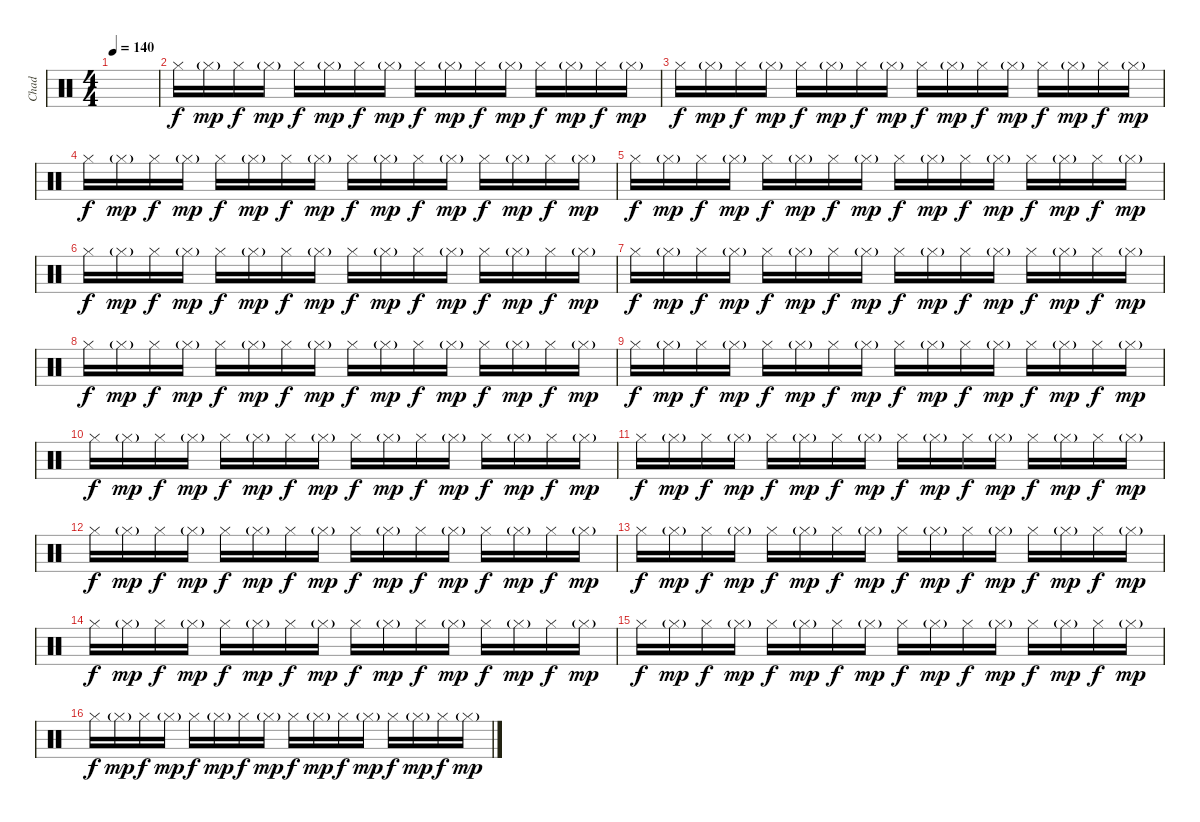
\track ("Chad" "Chad") {instrument percussion}
\staff {score}
\articulation defaults
\ts (4 4)
\tempo 140
\clef neutral
\ks c
|
"Hi-Hat (closed)".16 "Hi-Hat (closed)"{g}.16{dy mp} "Hi-Hat (closed)".16{dy f} "Hi-Hat (closed)"{g}.16{dy mp} "Hi-Hat (closed)".16{dy f} "Hi-Hat (closed)"{g}.16{dy mp} "Hi-Hat (closed)".16{dy f} "Hi-Hat (closed)"{g}.16{dy mp} "Hi-Hat (closed)".16{dy f} "Hi-Hat (closed)"{g}.16{dy mp} "Hi-Hat (closed)".16{dy f} "Hi-Hat (closed)"{g}.16{dy mp} "Hi-Hat (closed)".16{dy f} "Hi-Hat (closed)"{g}.16{dy mp} "Hi-Hat (closed)".16{dy f} "Hi-Hat (closed)"{g}.16{dy mp} |
"Hi-Hat (closed)".16{dy f} "Hi-Hat (closed)"{g}.16{dy mp} "Hi-Hat (closed)".16{dy f} "Hi-Hat (closed)"{g}.16{dy mp} "Hi-Hat (closed)".16{dy f} "Hi-Hat (closed)"{g}.16{dy mp} "Hi-Hat (closed)".16{dy f} "Hi-Hat (closed)"{g}.16{dy mp} "Hi-Hat (closed)".16{dy f} "Hi-Hat (closed)"{g}.16{dy mp} "Hi-Hat (closed)".16{dy f} "Hi-Hat (closed)"{g}.16{dy mp} "Hi-Hat (closed)".16{dy f} "Hi-Hat (closed)"{g}.16{dy mp} "Hi-Hat (closed)".16{dy f} "Hi-Hat (closed)"{g}.16{dy mp} |
"Hi-Hat (closed)".16{dy f} "Hi-Hat (closed)"{g}.16{dy mp} "Hi-Hat (closed)".16{dy f} "Hi-Hat (closed)"{g}.16{dy mp} "Hi-Hat (closed)".16{dy f} "Hi-Hat (closed)"{g}.16{dy mp} "Hi-Hat (closed)".16{dy f} "Hi-Hat (closed)"{g}.16{dy mp} "Hi-Hat (closed)".16{dy f} "Hi-Hat (closed)"{g}.16{dy mp} "Hi-Hat (closed)".16{dy f} "Hi-Hat (closed)"{g}.16{dy mp} "Hi-Hat (closed)".16{dy f} "Hi-Hat (closed)"{g}.16{dy mp} "Hi-Hat (closed)".16{dy f} "Hi-Hat (closed)"{g}.16{dy mp} |
"Hi-Hat (closed)".16{dy f} "Hi-Hat (closed)"{g}.16{dy mp} "Hi-Hat (closed)".16{dy f} "Hi-Hat (closed)"{g}.16{dy mp} "Hi-Hat (closed)".16{dy f} "Hi-Hat (closed)"{g}.16{dy mp} "Hi-Hat (closed)".16{dy f} "Hi-Hat (closed)"{g}.16{dy mp} "Hi-Hat (closed)".16{dy f} "Hi-Hat (closed)"{g}.16{dy mp} "Hi-Hat (closed)".16{dy f} "Hi-Hat (closed)"{g}.16{dy mp} "Hi-Hat (closed)".16{dy f} "Hi-Hat (closed)"{g}.16{dy mp} "Hi-Hat (closed)".16{dy f} "Hi-Hat (closed)"{g}.16{dy mp} |
"Hi-Hat (closed)".16{dy f} "Hi-Hat (closed)"{g}.16{dy mp} "Hi-Hat (closed)".16{dy f} "Hi-Hat (closed)"{g}.16{dy mp} "Hi-Hat (closed)".16{dy f} "Hi-Hat (closed)"{g}.16{dy mp} "Hi-Hat (closed)".16{dy f} "Hi-Hat (closed)"{g}.16{dy mp} "Hi-Hat (closed)".16{dy f} "Hi-Hat (closed)"{g}.16{dy mp} "Hi-Hat (closed)".16{dy f} "Hi-Hat (closed)"{g}.16{dy mp} "Hi-Hat (closed)".16{dy f} "Hi-Hat (closed)"{g}.16{dy mp} "Hi-Hat (closed)".16{dy f} "Hi-Hat (closed)"{g}.16{dy mp} |
"Hi-Hat (closed)".16{dy f} "Hi-Hat (closed)"{g}.16{dy mp} "Hi-Hat (closed)".16{dy f} "Hi-Hat (closed)"{g}.16{dy mp} "Hi-Hat (closed)".16{dy f} "Hi-Hat (closed)"{g}.16{dy mp} "Hi-Hat (closed)".16{dy f} "Hi-Hat (closed)"{g}.16{dy mp} "Hi-Hat (closed)".16{dy f} "Hi-Hat (closed)"{g}.16{dy mp} "Hi-Hat (closed)".16{dy f} "Hi-Hat (closed)"{g}.16{dy mp} "Hi-Hat (closed)".16{dy f} "Hi-Hat (closed)"{g}.16{dy mp} "Hi-Hat (closed)".16{dy f} "Hi-Hat (closed)"{g}.16{dy mp} |
"Hi-Hat (closed)".16{dy f} "Hi-Hat (closed)"{g}.16{dy mp} "Hi-Hat (closed)".16{dy f} "Hi-Hat (closed)"{g}.16{dy mp} "Hi-Hat (closed)".16{dy f} "Hi-Hat (closed)"{g}.16{dy mp} "Hi-Hat (closed)".16{dy f} "Hi-Hat (closed)"{g}.16{dy mp} "Hi-Hat (closed)".16{dy f} "Hi-Hat (closed)"{g}.16{dy mp} "Hi-Hat (closed)".16{dy f} "Hi-Hat (closed)"{g}.16{dy mp} "Hi-Hat (closed)".16{dy f} "Hi-Hat (closed)"{g}.16{dy mp} "Hi-Hat (closed)".16{dy f} "Hi-Hat (closed)"{g}.16{dy mp} |
"Hi-Hat (closed)".16{dy f} "Hi-Hat (closed)"{g}.16{dy mp} "Hi-Hat (closed)".16{dy f} "Hi-Hat (closed)"{g}.16{dy mp} "Hi-Hat (closed)".16{dy f} "Hi-Hat (closed)"{g}.16{dy mp} "Hi-Hat (closed)".16{dy f} "Hi-Hat (closed)"{g}.16{dy mp} "Hi-Hat (closed)".16{dy f} "Hi-Hat (closed)"{g}.16{dy mp} "Hi-Hat (closed)".16{dy f} "Hi-Hat (closed)"{g}.16{dy mp} "Hi-Hat (closed)".16{dy f} "Hi-Hat (closed)"{g}.16{dy mp} "Hi-Hat (closed)".16{dy f} "Hi-Hat (closed)"{g}.16{dy mp} |
"Hi-Hat (closed)".16{dy f} "Hi-Hat (closed)"{g}.16{dy mp} "Hi-Hat (closed)".16{dy f} "Hi-Hat (closed)"{g}.16{dy mp} "Hi-Hat (closed)".16{dy f} "Hi-Hat (closed)"{g}.16{dy mp} "Hi-Hat (closed)".16{dy f} "Hi-Hat (closed)"{g}.16{dy mp} "Hi-Hat (closed)".16{dy f} "Hi-Hat (closed)"{g}.16{dy mp} "Hi-Hat (closed)".16{dy f} "Hi-Hat (closed)"{g}.16{dy mp} "Hi-Hat (closed)".16{dy f} "Hi-Hat (closed)"{g}.16{dy mp} "Hi-Hat (closed)".16{dy f} "Hi-Hat (closed)"{g}.16{dy mp} |
"Hi-Hat (closed)".16{dy f} "Hi-Hat (closed)"{g}.16{dy mp} "Hi-Hat (closed)".16{dy f} "Hi-Hat (closed)"{g}.16{dy mp} "Hi-Hat (closed)".16{dy f} "Hi-Hat (closed)"{g}.16{dy mp} "Hi-Hat (closed)".16{dy f} "Hi-Hat (closed)"{g}.16{dy mp} "Hi-Hat (closed)".16{dy f} "Hi-Hat (closed)"{g}.16{dy mp} "Hi-Hat (closed)".16{dy f} "Hi-Hat (closed)"{g}.16{dy mp} "Hi-Hat (closed)".16{dy f} "Hi-Hat (closed)"{g}.16{dy mp} "Hi-Hat (closed)".16{dy f} "Hi-Hat (closed)"{g}.16{dy mp} |
"Hi-Hat (closed)".16{dy f} "Hi-Hat (closed)"{g}.16{dy mp} "Hi-Hat (closed)".16{dy f} "Hi-Hat (closed)"{g}.16{dy mp} "Hi-Hat (closed)".16{dy f} "Hi-Hat (closed)"{g}.16{dy mp} "Hi-Hat (closed)".16{dy f} "Hi-Hat (closed)"{g}.16{dy mp} "Hi-Hat (closed)".16{dy f} "Hi-Hat (closed)"{g}.16{dy mp} "Hi-Hat (closed)".16{dy f} "Hi-Hat (closed)"{g}.16{dy mp} "Hi-Hat (closed)".16{dy f} "Hi-Hat (closed)"{g}.16{dy mp} "Hi-Hat (closed)".16{dy f} "Hi-Hat (closed)"{g}.16{dy mp} |
"Hi-Hat (closed)".16{dy f} "Hi-Hat (closed)"{g}.16{dy mp} "Hi-Hat (closed)".16{dy f} "Hi-Hat (closed)"{g}.16{dy mp} "Hi-Hat (closed)".16{dy f} "Hi-Hat (closed)"{g}.16{dy mp} "Hi-Hat (closed)".16{dy f} "Hi-Hat (closed)"{g}.16{dy mp} "Hi-Hat (closed)".16{dy f} "Hi-Hat (closed)"{g}.16{dy mp} "Hi-Hat (closed)".16{dy f} "Hi-Hat (closed)"{g}.16{dy mp} "Hi-Hat (closed)".16{dy f} "Hi-Hat (closed)"{g}.16{dy mp} "Hi-Hat (closed)".16{dy f} "Hi-Hat (closed)"{g}.16{dy mp} |
"Hi-Hat (closed)".16{dy f} "Hi-Hat (closed)"{g}.16{dy mp} "Hi-Hat (closed)".16{dy f} "Hi-Hat (closed)"{g}.16{dy mp} "Hi-Hat (closed)".16{dy f} "Hi-Hat (closed)"{g}.16{dy mp} "Hi-Hat (closed)".16{dy f} "Hi-Hat (closed)"{g}.16{dy mp} "Hi-Hat (closed)".16{dy f} "Hi-Hat (closed)"{g}.16{dy mp} "Hi-Hat (closed)".16{dy f} "Hi-Hat (closed)"{g}.16{dy mp} "Hi-Hat (closed)".16{dy f} "Hi-Hat (closed)"{g}.16{dy mp} "Hi-Hat (closed)".16{dy f} "Hi-Hat (closed)"{g}.16{dy mp} |
"Hi-Hat (closed)".16{dy f} "Hi-Hat (closed)"{g}.16{dy mp} "Hi-Hat (closed)".16{dy f} "Hi-Hat (closed)"{g}.16{dy mp} "Hi-Hat (closed)".16{dy f} "Hi-Hat (closed)"{g}.16{dy mp} "Hi-Hat (closed)".16{dy f} "Hi-Hat (closed)"{g}.16{dy mp} "Hi-Hat (closed)".16{dy f} "Hi-Hat (closed)"{g}.16{dy mp} "Hi-Hat (closed)".16{dy f} "Hi-Hat (closed)"{g}.16{dy mp} "Hi-Hat (closed)".16{dy f} "Hi-Hat (closed)"{g}.16{dy mp} "Hi-Hat (closed)".16{dy f} "Hi-Hat (closed)"{g}.16{dy mp} |
"Hi-Hat (closed)".16{dy f} "Hi-Hat (closed)"{g}.16{dy mp} "Hi-Hat (closed)".16{dy f} "Hi-Hat (closed)"{g}.16{dy mp} "Hi-Hat (closed)".16{dy f} "Hi-Hat (closed)"{g}.16{dy mp} "Hi-Hat (closed)".16{dy f} "Hi-Hat (closed)"{g}.16{dy mp} "Hi-Hat (closed)".16{dy f} "Hi-Hat (closed)"{g}.16{dy mp} "Hi-Hat (closed)".16{dy f} "Hi-Hat (closed)"{g}.16{dy mp} "Hi-Hat (closed)".16{dy f} "Hi-Hat (closed)"{g}.16{dy mp} "Hi-Hat (closed)".16{dy f} "Hi-Hat (closed)"{g}.16{dy mp}
